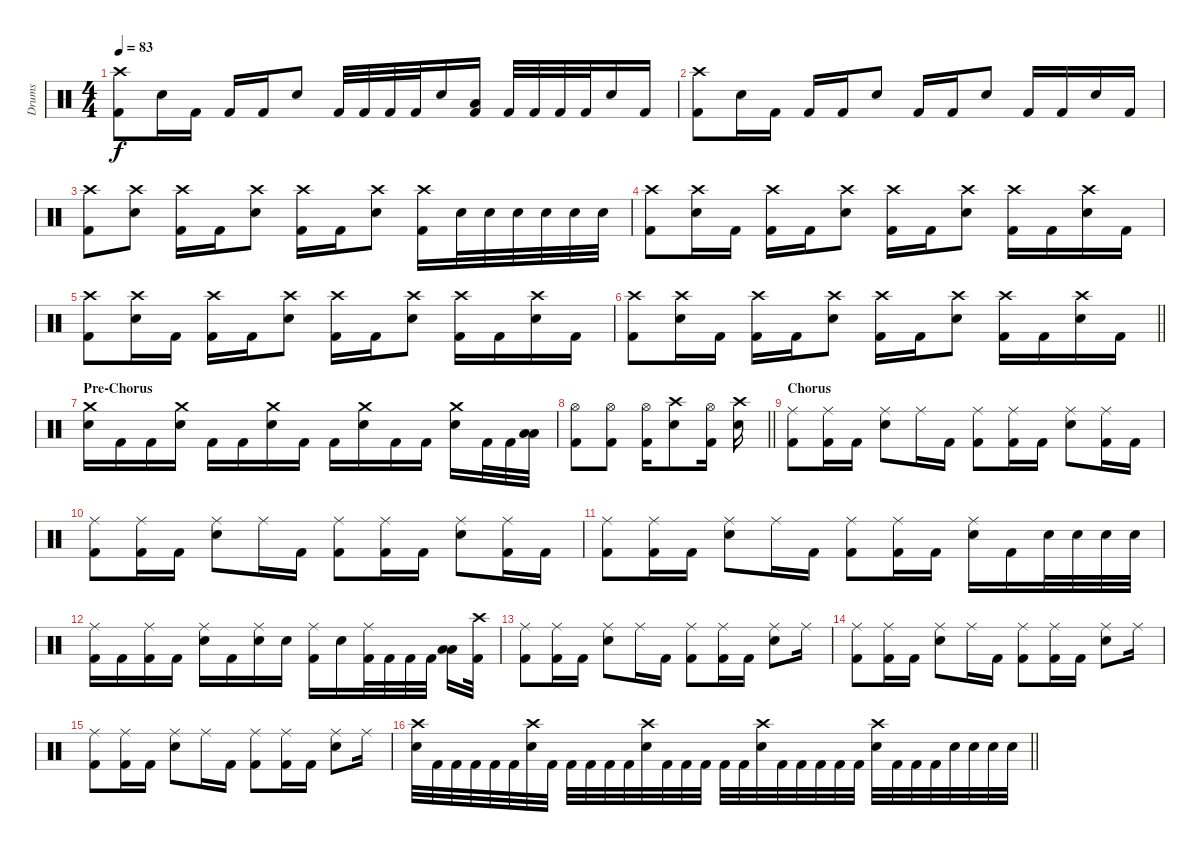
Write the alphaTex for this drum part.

\track ("Drums" "Drums") {instrument percussion}
\staff {score}
\articulation defaults
\ts (4 4)
\tempo 83
\clef neutral
\ks c
("Crash high (hit)" "Kick (hit) 2").8{dy f} "Snare (hit) 2".16 "Kick (hit) 2".16 "Kick (hit) 2".16 "Kick (hit) 2".16 "Snare (hit) 2".8 "Kick (hit) 2".32 "Kick (hit) 2".32 "Kick (hit) 2".32 "Kick (hit) 2".32 "Snare (hit) 2".16 ("Low Floor Tom (hit)" "Kick (hit) 2").16 "Kick (hit) 2".32 "Kick (hit) 2".32 "Kick (hit) 2".32 "Kick (hit) 2".32 "Snare (hit) 2".16 "Kick (hit) 2".16 |
("Crash high (hit)" "Kick (hit) 2").8 "Snare (hit) 2".16 "Kick (hit) 2".16 "Kick (hit) 2".16 "Kick (hit) 2".16 "Snare (hit) 2".8 "Kick (hit) 2".16 "Kick (hit) 2".16 "Snare (hit) 2".8 "Kick (hit) 2".16 "Kick (hit) 2".16 "Snare (hit) 2".16 "Kick (hit) 2".16 |
("Crash high (hit)" "Kick (hit) 2").8 ("Crash high (hit)" "Snare (hit) 2").8 ("Crash high (hit)" "Kick (hit) 2").16 "Kick (hit) 2".16 ("Crash high (hit)" "Snare (hit) 2").8 ("Crash high (hit)" "Kick (hit) 2").16 "Kick (hit) 2".16 ("Crash high (hit)" "Snare (hit) 2").8 ("Crash high (hit)" "Kick (hit) 2").16 "Snare (hit) 2".32 "Snare (hit) 2".32 "Snare (hit) 2".32 "Snare (hit) 2".32 "Snare (hit) 2".32 "Snare (hit) 2".32 |
("Crash high (hit)" "Kick (hit) 2").8 ("Crash high (hit)" "Snare (hit) 2").16 "Kick (hit) 2".16 ("Crash high (hit)" "Kick (hit) 2").16 "Kick (hit) 2".16 ("Crash high (hit)" "Snare (hit) 2").8 ("Crash high (hit)" "Kick (hit) 2").16 "Kick (hit) 2".16 ("Crash high (hit)" "Snare (hit) 2").8 ("Crash high (hit)" "Kick (hit) 2").16 "Kick (hit) 2".16 ("Crash high (hit)" "Snare (hit) 2").16 "Kick (hit) 2".16 |
("Crash high (hit)" "Kick (hit) 2").8 ("Crash high (hit)" "Snare (hit) 2").16 "Kick (hit) 2".16 ("Crash high (hit)" "Kick (hit) 2").16 "Kick (hit) 2".16 ("Crash high (hit)" "Snare (hit) 2").8 ("Crash high (hit)" "Kick (hit) 2").16 "Kick (hit) 2".16 ("Crash high (hit)" "Snare (hit) 2").8 ("Crash high (hit)" "Kick (hit) 2").16 "Kick (hit) 2".16 ("Crash high (hit)" "Snare (hit) 2").16 "Kick (hit) 2".16 |
\barLineRight lightlight
("Crash high (hit)" "Kick (hit) 2").8 ("Crash high (hit)" "Snare (hit) 2").16 "Kick (hit) 2".16 ("Crash high (hit)" "Kick (hit) 2").16 "Kick (hit) 2".16 ("Crash high (hit)" "Snare (hit) 2").8 ("Crash high (hit)" "Kick (hit) 2").16 "Kick (hit) 2".16 ("Crash high (hit)" "Snare (hit) 2").8 ("Crash high (hit)" "Kick (hit) 2").16 "Kick (hit) 2".16 ("Crash high (hit)" "Snare (hit) 2").16 "Kick (hit) 2".16 |
\section ("" "Pre-Chorus")
("Crash medium (hit)" "Snare (hit) 2").16 "Kick (hit) 2".16 "Kick (hit) 2".16 ("Crash medium (hit)" "Snare (hit) 2").16 "Kick (hit) 2".16 "Kick (hit) 2".16 ("Crash medium (hit)" "Snare (hit) 2").16 "Kick (hit) 2".16 "Kick (hit) 2".16 ("Crash medium (hit)" "Snare (hit) 2").16 "Kick (hit) 2".16 "Kick (hit) 2".16 ("Crash medium (hit)" "Snare (hit) 2").16 "Kick (hit) 2".32 "Kick (hit) 2".32 ("Low Tom (hit)" "Low Floor Tom (hit)").32 |
\barLineRight lightlight
("Hi-Hat (open)" "Kick (hit) 2").8 ("Hi-Hat (open)" "Kick (hit) 2").8 ("Hi-Hat (open)" "Kick (hit) 2").16 ("Crash high (hit)" "Snare (hit) 2").8 ("Hi-Hat (open)" "Kick (hit) 2").16 ("Crash high (hit)" "Snare (hit) 2").16 |
\section ("" "Chorus")
("Ride (middle)" "Kick (hit) 2").8 ("Ride (middle)" "Kick (hit) 2").16 "Kick (hit) 2".16 ("Ride (middle)" "Snare (hit) 2").8 "Ride (middle)".16 "Kick (hit) 2".16 ("Ride (middle)" "Kick (hit) 2").8 ("Ride (middle)" "Kick (hit) 2").16 "Kick (hit) 2".16 ("Ride (middle)" "Snare (hit) 2").8 ("Ride (middle)" "Kick (hit) 2").16 "Kick (hit) 2".16 |
("Ride (middle)" "Kick (hit) 2").8 ("Ride (middle)" "Kick (hit) 2").16 "Kick (hit) 2".16 ("Ride (middle)" "Snare (hit) 2").8 "Ride (middle)".16 "Kick (hit) 2".16 ("Ride (middle)" "Kick (hit) 2").8 ("Ride (middle)" "Kick (hit) 2").16 "Kick (hit) 2".16 ("Ride (middle)" "Snare (hit) 2").8 ("Ride (middle)" "Kick (hit) 2").16 "Kick (hit) 2".16 |
("Ride (middle)" "Kick (hit) 2").8 ("Ride (middle)" "Kick (hit) 2").16 "Kick (hit) 2".16 ("Ride (middle)" "Snare (hit) 2").8 "Ride (middle)".16 "Kick (hit) 2".16 ("Ride (middle)" "Kick (hit) 2").8 ("Ride (middle)" "Kick (hit) 2").16 "Kick (hit) 2".16 ("Ride (middle)" "Snare (hit) 2").16 "Kick (hit) 2".16 "Snare (hit) 2".32 "Snare (hit) 2".32 "Snare (hit) 2".32 "Snare (hit) 2".32 |
("Ride (middle)" "Kick (hit) 2").16 "Kick (hit) 2".16 ("Ride (middle)" "Kick (hit) 2").16 "Kick (hit) 2".16 ("Ride (middle)" "Snare (hit) 2").16 "Kick (hit) 2".16 ("Ride (middle)" "Snare (hit) 2").16 "Snare (hit) 2".16 ("Ride (middle)" "Kick (hit) 2").16 "Snare (hit) 2".16 ("Ride (middle)" "Kick (hit) 2").32 "Kick (hit) 2".32 "Kick (hit) 2".32 "Kick (hit) 2".32 ("Low Tom (hit)" "Low Floor Tom (hit)").16 ("Crash high (hit)" "Kick (hit) 2").32 |
("Ride (middle)" "Kick (hit) 2").8 ("Ride (middle)" "Kick (hit) 2").16 "Kick (hit) 2".16 ("Ride (middle)" "Snare (hit) 2").8 "Ride (middle)".16 "Kick (hit) 2".16 ("Ride (middle)" "Kick (hit) 2").8 ("Ride (middle)" "Kick (hit) 2").16 "Kick (hit) 2".16 ("Ride (middle)" "Snare (hit) 2").8 "Ride (middle)".16 |
("Ride (middle)" "Kick (hit) 2").8 ("Ride (middle)" "Kick (hit) 2").16 "Kick (hit) 2".16 ("Ride (middle)" "Snare (hit) 2").8 "Ride (middle)".16 "Kick (hit) 2".16 ("Ride (middle)" "Kick (hit) 2").8 ("Ride (middle)" "Kick (hit) 2").16 "Kick (hit) 2".16 ("Ride (middle)" "Snare (hit) 2").8 "Ride (middle)".16 |
("Ride (middle)" "Kick (hit) 2").8 ("Ride (middle)" "Kick (hit) 2").16 "Kick (hit) 2".16 ("Ride (middle)" "Snare (hit) 2").8 "Ride (middle)".16 "Kick (hit) 2".16 ("Ride (middle)" "Kick (hit) 2").8 ("Ride (middle)" "Kick (hit) 2").16 "Kick (hit) 2".16 ("Ride (middle)" "Snare (hit) 2").8 "Ride (middle)".16 |
\barLineRight lightlight
("Crash high (hit)" "Snare (hit) 2").32 "Kick (hit) 2".32 "Kick (hit) 2".32 "Kick (hit) 2".32 "Kick (hit) 2".32 "Kick (hit) 2".32 ("Crash high (hit)" "Snare (hit) 2").32 "Kick (hit) 2".32 "Kick (hit) 2".32 "Kick (hit) 2".32 "Kick (hit) 2".32 "Kick (hit) 2".32 ("Crash high (hit)" "Snare (hit) 2").32 "Kick (hit) 2".32 "Kick (hit) 2".32 "Kick (hit) 2".32 "Kick (hit) 2".32 "Kick (hit) 2".32 ("Crash high (hit)" "Snare (hit) 2").32 "Kick (hit) 2".32 "Kick (hit) 2".32 "Kick (hit) 2".32 "Kick (hit) 2".32 "Kick (hit) 2".32 ("Crash high (hit)" "Snare (hit) 2").32 "Kick (hit) 2".32 "Kick (hit) 2".32 "Kick (hit) 2".32 "Snare (hit) 2".32 "Snare (hit) 2".32 "Snare (hit) 2".32 "Snare (hit) 2".32
